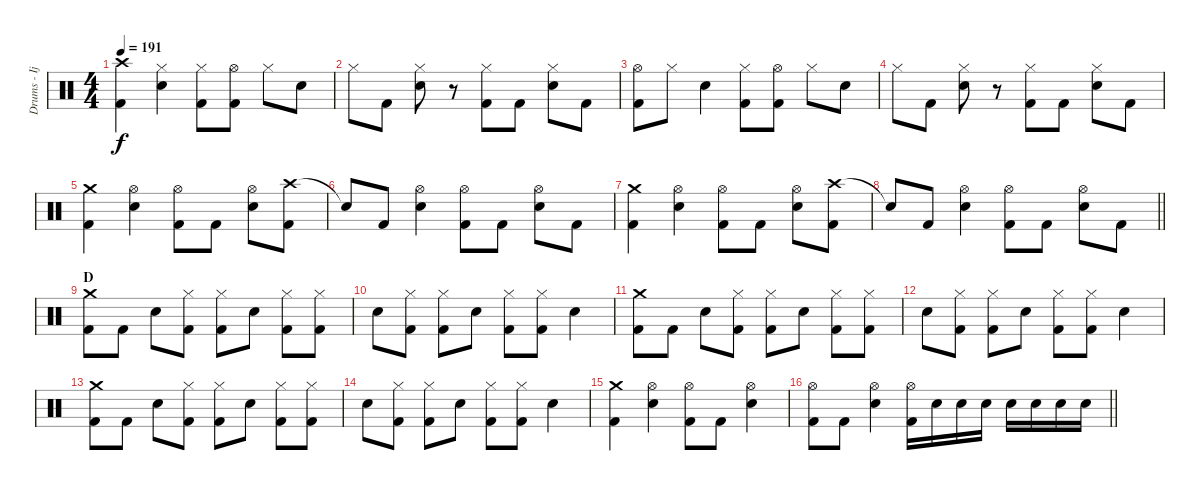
\track ("Drums - Ijichi" "Drums - Ij") {instrument percussion}
\staff
\articulation defaults
\ts (4 4)
\tempo 191
\clef neutral
\ks c
("Crash high (hit)" "Kick (hit) 2").4{dy f} ("Hi-Hat (closed)" "Electric Snare (hit)").4 ("Hi-Hat (closed)" "Kick (hit) 2").8 ("Hi-Hat (open)" "Kick (hit) 2").8 "Hi-Hat (closed)".8 "Electric Snare (hit)".8 |
"Hi-Hat (closed)".8 "Kick (hit) 2".8 ("Hi-Hat (closed)" "Electric Snare (hit)").8 r.8 ("Hi-Hat (closed)" "Kick (hit) 2").8 "Kick (hit) 2".8 ("Hi-Hat (closed)" "Electric Snare (hit)").8 "Kick (hit) 2".8 |
("Hi-Hat (open)" "Kick (hit) 2").8 "Hi-Hat (closed)".8 "Electric Snare (hit)".4 ("Hi-Hat (closed)" "Kick (hit) 2").8 ("Hi-Hat (open)" "Kick (hit) 2").8 "Hi-Hat (closed)".8 "Electric Snare (hit)".8 |
"Hi-Hat (closed)".8 "Kick (hit) 2".8 ("Hi-Hat (closed)" "Electric Snare (hit)").8 r.8 ("Hi-Hat (closed)" "Kick (hit) 2").8 "Kick (hit) 2".8 ("Hi-Hat (closed)" "Electric Snare (hit)").8 "Kick (hit) 2".8 |
("Crash medium (hit)" "Kick (hit) 2").4 ("Hi-Hat (open)" "Electric Snare (hit)").4 ("Hi-Hat (open)" "Kick (hit) 2").8 "Kick (hit) 2".8 ("Hi-Hat (open)" "Electric Snare (hit)").8 ("Crash high (hit)" "Kick (hit) 2").8 |
"Snare (hit)"{t}.8 "Kick (hit) 2".8 ("Hi-Hat (open)" "Electric Snare (hit)").4 ("Hi-Hat (open)" "Kick (hit) 2").8 "Kick (hit) 2".8 ("Hi-Hat (open)" "Electric Snare (hit)").8 "Kick (hit) 2".8 |
("Crash medium (hit)" "Kick (hit) 2").4 ("Hi-Hat (open)" "Electric Snare (hit)").4 ("Hi-Hat (open)" "Kick (hit) 2").8 "Kick (hit) 2".8 ("Hi-Hat (open)" "Electric Snare (hit)").8 ("Crash high (hit)" "Kick (hit) 2").8 |
\barLineRight lightlight "Snare (hit)"{t}.8 "Kick (hit) 2".8
("Hi-Hat (open)" "Electric Snare (hit)").4 ("Hi-Hat (open)" "Kick (hit) 2").8 "Kick (hit) 2".8 ("Hi-Hat (open)" "Electric Snare (hit)").8 "Kick (hit) 2".8 |
\section ("" "D")
("Crash medium (hit)" "Kick (hit) 2").8 "Kick (hit) 2".8 "Electric Snare (hit)".8 ("Hi-Hat (closed)" "Kick (hit) 2").8 ("Hi-Hat (closed)" "Kick (hit) 2").8 "Electric Snare (hit)".8 ("Hi-Hat (closed)" "Kick (hit) 2").8 ("Hi-Hat (closed)" "Kick (hit) 2").8 |
"Electric Snare (hit)".8 ("Hi-Hat (closed)" "Kick (hit) 2").8 ("Hi-Hat (closed)" "Kick (hit) 2").8 "Electric Snare (hit)".8 ("Hi-Hat (closed)" "Kick (hit) 2").8 ("Hi-Hat (closed)" "Kick (hit) 2").8 "Electric Snare (hit)".4 |
("Crash medium (hit)" "Kick (hit) 2").8 "Kick (hit) 2".8 "Electric Snare (hit)".8 ("Hi-Hat (closed)" "Kick (hit) 2").8 ("Hi-Hat (closed)" "Kick (hit) 2").8 "Electric Snare (hit)".8 ("Hi-Hat (closed)" "Kick (hit) 2").8 ("Hi-Hat (closed)" "Kick (hit) 2").8 |
"Electric Snare (hit)".8 ("Hi-Hat (closed)" "Kick (hit) 2").8 ("Hi-Hat (closed)" "Kick (hit) 2").8 "Electric Snare (hit)".8 ("Hi-Hat (closed)" "Kick (hit) 2").8 ("Hi-Hat (closed)" "Kick (hit) 2").8 "Electric Snare (hit)".4 |
("Crash medium (hit)" "Kick (hit) 2").8 "Kick (hit) 2".8 "Electric Snare (hit)".8 ("Hi-Hat (closed)" "Kick (hit) 2").8 ("Hi-Hat (closed)" "Kick (hit) 2").8 "Electric Snare (hit)".8 ("Hi-Hat (closed)" "Kick (hit) 2").8 ("Hi-Hat (closed)" "Kick (hit) 2").8 |
"Electric Snare (hit)".8 ("Hi-Hat (closed)" "Kick (hit) 2").8 ("Hi-Hat (closed)" "Kick (hit) 2").8 "Electric Snare (hit)".8 ("Hi-Hat (closed)" "Kick (hit) 2").8 ("Hi-Hat (closed)" "Kick (hit) 2").8 "Electric Snare (hit)".4 |
("Crash medium (hit)" "Kick (hit) 2").4 ("Hi-Hat (open)" "Electric Snare (hit)").4 ("Hi-Hat (open)" "Kick (hit) 2").8 "Kick (hit) 2".8 ("Hi-Hat (open)" "Electric Snare (hit)").4 |
\barLineRight lightlight
("Hi-Hat (open)" "Kick (hit) 2").8 "Kick (hit) 2".8 ("Hi-Hat (open)" "Electric Snare (hit)").4 ("Hi-Hat (open)" "Kick (hit) 2").16 "Electric Snare (hit)".16 "Electric Snare (hit)".16 "Electric Snare (hit)".16 "Electric Snare (hit)".16 "Electric Snare (hit)".16 "Electric Snare (hit)".16 "Electric Snare (hit)".16
